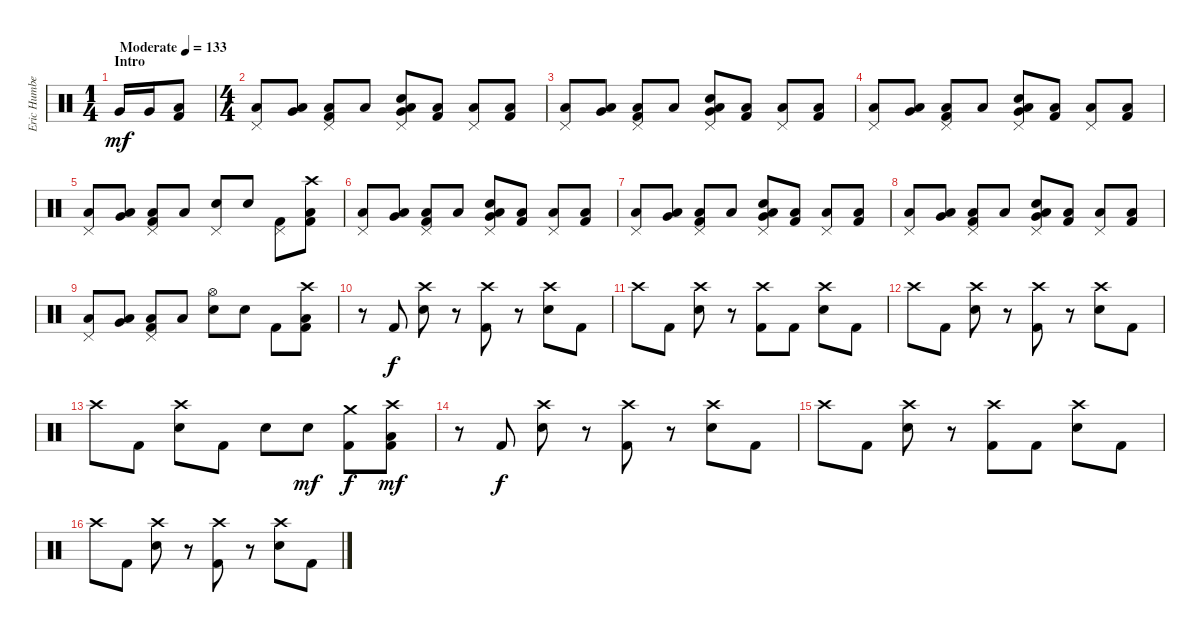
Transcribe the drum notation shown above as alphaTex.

\track ("Eric Humbert (Drums)" "Eric Humbe") {instrument percussion}
\staff {score}
\articulation defaults
\ts (1 4)
\section ("" "Intro")
\tempo (133 "Moderate")
\clef neutral
\ks c "Very Low Tom (hit)".16{dy mf} "Very Low Tom (hit)".16
("Low Floor Tom (hit)" "Kick (hit) 2").8 |
\ts (4 4)
("Pedal Hi-Hat (hit)" "Low Floor Tom (hit)").8 ("Very Low Tom (hit)" "Low Floor Tom (hit)").8 ("Pedal Hi-Hat (hit)" "Low Floor Tom (hit)" "Kick (hit) 2").8 "Low Floor Tom (hit)".8 ("Pedal Hi-Hat (hit)" "Very Low Tom (hit)" "Low Floor Tom (hit)" "Electric Snare (hit)").8 ("Low Floor Tom (hit)" "Kick (hit) 2").8 ("Pedal Hi-Hat (hit)" "Low Floor Tom (hit)").8 ("Low Floor Tom (hit)" "Kick (hit) 2").8 |
("Pedal Hi-Hat (hit)" "Low Floor Tom (hit)").8 ("Very Low Tom (hit)" "Low Floor Tom (hit)").8 ("Pedal Hi-Hat (hit)" "Low Floor Tom (hit)" "Kick (hit) 2").8 "Low Floor Tom (hit)".8 ("Pedal Hi-Hat (hit)" "Very Low Tom (hit)" "Low Floor Tom (hit)" "Electric Snare (hit)").8 ("Low Floor Tom (hit)" "Kick (hit) 2").8 ("Pedal Hi-Hat (hit)" "Low Floor Tom (hit)").8 ("Low Floor Tom (hit)" "Kick (hit) 2").8 |
("Pedal Hi-Hat (hit)" "Low Floor Tom (hit)").8 ("Very Low Tom (hit)" "Low Floor Tom (hit)").8 ("Pedal Hi-Hat (hit)" "Low Floor Tom (hit)" "Kick (hit) 2").8 "Low Floor Tom (hit)".8 ("Pedal Hi-Hat (hit)" "Very Low Tom (hit)" "Low Floor Tom (hit)" "Electric Snare (hit)").8 ("Low Floor Tom (hit)" "Kick (hit) 2").8 ("Pedal Hi-Hat (hit)" "Low Floor Tom (hit)").8 ("Low Floor Tom (hit)" "Kick (hit) 2").8 |
("Pedal Hi-Hat (hit)" "Low Floor Tom (hit)").8 ("Very Low Tom (hit)" "Low Floor Tom (hit)").8 ("Pedal Hi-Hat (hit)" "Low Floor Tom (hit)" "Kick (hit) 2").8 "Low Floor Tom (hit)".8 ("Pedal Hi-Hat (hit)" "Electric Snare (hit)").8 "Electric Snare (hit)".8 ("Pedal Hi-Hat (hit)" "Kick (hit) 2").8 ("Crash high (hit)" "Low Floor Tom (hit)" "Kick (hit) 2").8 |
("Pedal Hi-Hat (hit)" "Low Floor Tom (hit)").8 ("Very Low Tom (hit)" "Low Floor Tom (hit)").8 ("Pedal Hi-Hat (hit)" "Low Floor Tom (hit)" "Kick (hit) 2").8 "Low Floor Tom (hit)".8 ("Pedal Hi-Hat (hit)" "Very Low Tom (hit)" "Low Floor Tom (hit)" "Electric Snare (hit)").8 ("Low Floor Tom (hit)" "Kick (hit) 2").8 ("Pedal Hi-Hat (hit)" "Low Floor Tom (hit)").8 ("Low Floor Tom (hit)" "Kick (hit) 2").8 |
("Pedal Hi-Hat (hit)" "Low Floor Tom (hit)").8 ("Very Low Tom (hit)" "Low Floor Tom (hit)").8 ("Pedal Hi-Hat (hit)" "Low Floor Tom (hit)" "Kick (hit) 2").8 "Low Floor Tom (hit)".8 ("Pedal Hi-Hat (hit)" "Very Low Tom (hit)" "Low Floor Tom (hit)" "Electric Snare (hit)").8 ("Low Floor Tom (hit)" "Kick (hit) 2").8 ("Pedal Hi-Hat (hit)" "Low Floor Tom (hit)").8 ("Low Floor Tom (hit)" "Kick (hit) 2").8 |
("Pedal Hi-Hat (hit)" "Low Floor Tom (hit)").8 ("Very Low Tom (hit)" "Low Floor Tom (hit)").8 ("Pedal Hi-Hat (hit)" "Low Floor Tom (hit)" "Kick (hit) 2").8 "Low Floor Tom (hit)".8 ("Pedal Hi-Hat (hit)" "Very Low Tom (hit)" "Low Floor Tom (hit)" "Electric Snare (hit)").8 ("Low Floor Tom (hit)" "Kick (hit) 2").8 ("Pedal Hi-Hat (hit)" "Low Floor Tom (hit)").8 ("Low Floor Tom (hit)" "Kick (hit) 2").8 |
("Pedal Hi-Hat (hit)" "Low Floor Tom (hit)").8 ("Very Low Tom (hit)" "Low Floor Tom (hit)").8 ("Pedal Hi-Hat (hit)" "Low Floor Tom (hit)" "Kick (hit) 2").8 "Low Floor Tom (hit)".8 ("Hi-Hat (open)" "Electric Snare (hit)").8 "Electric Snare (hit)".8 "Kick (hit) 2".8 ("Crash high (hit)" "Low Floor Tom (hit)" "Kick (hit) 2").8 |
r.8 "Kick (hit) 2".8{dy f} ("Crash high (hit)" "Electric Snare (hit)").8 r.8 ("Crash high (hit)" "Kick (hit) 2").8 r.8 ("Crash high (hit)" "Electric Snare (hit)").8 "Kick (hit) 2".8 |
"Crash high (hit)".8 "Kick (hit) 2".8 ("Crash high (hit)" "Electric Snare (hit)").8 r.8 ("Crash high (hit)" "Kick (hit) 2").8 "Kick (hit) 2".8 ("Crash high (hit)" "Electric Snare (hit)").8 "Kick (hit) 2".8 |
"Crash high (hit)".8 "Kick (hit) 2".8 ("Crash high (hit)" "Electric Snare (hit)").8 r.8 ("Crash high (hit)" "Kick (hit) 2").8 r.8 ("Crash high (hit)" "Electric Snare (hit)").8 "Kick (hit) 2".8 |
"Crash high (hit)".8 "Kick (hit) 2".8 ("Crash high (hit)" "Electric Snare (hit)").8 "Kick (hit) 2".8 "Electric Snare (hit)".8 "Electric Snare (hit)".8{dy mf} ("Crash medium (hit)" "Kick (hit) 2").8{dy f} ("Crash high (hit)" "Low Floor Tom (hit)" "Kick (hit) 2").8{dy mf} |
r.8 "Kick (hit) 2".8{dy f} ("Crash high (hit)" "Electric Snare (hit)").8 r.8 ("Crash high (hit)" "Kick (hit) 2").8 r.8 ("Crash high (hit)" "Electric Snare (hit)").8 "Kick (hit) 2".8 |
"Crash high (hit)".8 "Kick (hit) 2".8 ("Crash high (hit)" "Electric Snare (hit)").8 r.8 ("Crash high (hit)" "Kick (hit) 2").8 "Kick (hit) 2".8 ("Crash high (hit)" "Electric Snare (hit)").8 "Kick (hit) 2".8 |
"Crash high (hit)".8 "Kick (hit) 2".8 ("Crash high (hit)" "Electric Snare (hit)").8 r.8 ("Crash high (hit)" "Kick (hit) 2").8 r.8 ("Crash high (hit)" "Electric Snare (hit)").8 "Kick (hit) 2".8
